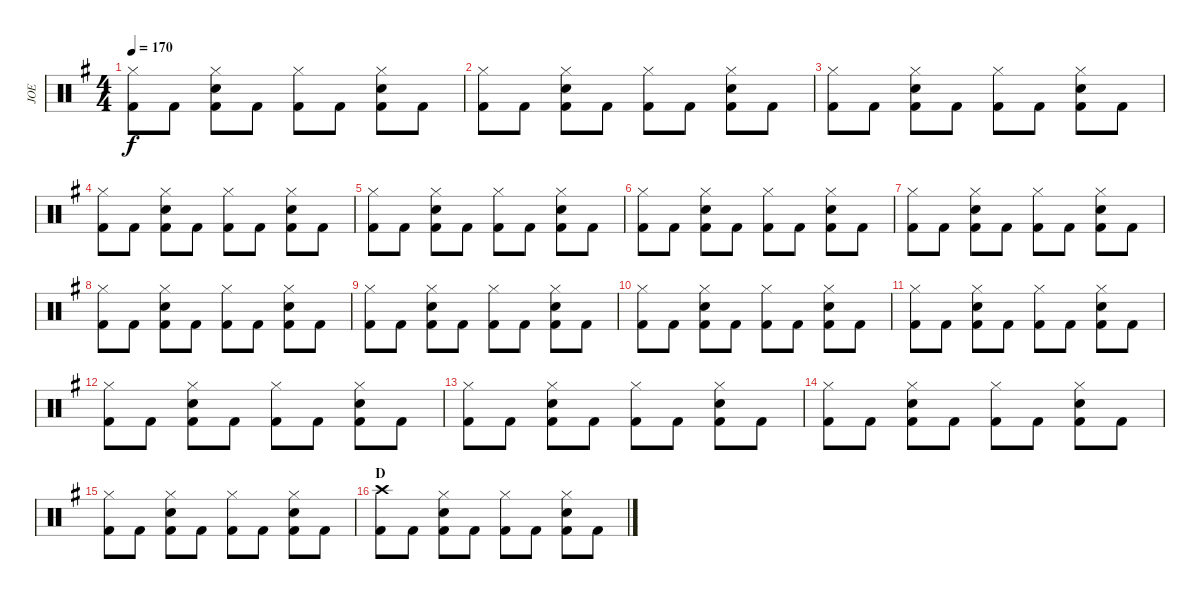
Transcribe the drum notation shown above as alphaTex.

\track ("JOE" "JOE") {instrument percussion}
\staff {score}
\articulation defaults
\ts (4 4)
\tempo 170
\clef neutral
\ks eminor
("Hi-Hat (closed)" "Kick (hit) 2").8{dy f} "Kick (hit) 2".8 ("Hi-Hat (closed)" "Snare (hit) 2" "Kick (hit) 2").8 "Kick (hit) 2".8 ("Hi-Hat (closed)" "Kick (hit) 2").8 "Kick (hit) 2".8 ("Hi-Hat (closed)" "Snare (hit) 2" "Kick (hit) 2").8 "Kick (hit) 2".8 |
("Hi-Hat (closed)" "Kick (hit) 2").8 "Kick (hit) 2".8 ("Hi-Hat (closed)" "Snare (hit) 2" "Kick (hit) 2").8 "Kick (hit) 2".8 ("Hi-Hat (closed)" "Kick (hit) 2").8 "Kick (hit) 2".8 ("Hi-Hat (closed)" "Snare (hit) 2" "Kick (hit) 2").8 "Kick (hit) 2".8 |
("Hi-Hat (closed)" "Kick (hit) 2").8 "Kick (hit) 2".8 ("Hi-Hat (closed)" "Snare (hit) 2" "Kick (hit) 2").8 "Kick (hit) 2".8 ("Hi-Hat (closed)" "Kick (hit) 2").8 "Kick (hit) 2".8 ("Hi-Hat (closed)" "Snare (hit) 2" "Kick (hit) 2").8 "Kick (hit) 2".8 |
("Hi-Hat (closed)" "Kick (hit) 2").8 "Kick (hit) 2".8 ("Hi-Hat (closed)" "Snare (hit) 2" "Kick (hit) 2").8 "Kick (hit) 2".8 ("Hi-Hat (closed)" "Kick (hit) 2").8 "Kick (hit) 2".8 ("Hi-Hat (closed)" "Snare (hit) 2" "Kick (hit) 2").8 "Kick (hit) 2".8 |
("Hi-Hat (closed)" "Kick (hit) 2").8 "Kick (hit) 2".8 ("Hi-Hat (closed)" "Snare (hit) 2" "Kick (hit) 2").8 "Kick (hit) 2".8 ("Hi-Hat (closed)" "Kick (hit) 2").8 "Kick (hit) 2".8 ("Hi-Hat (closed)" "Snare (hit) 2" "Kick (hit) 2").8 "Kick (hit) 2".8 |
("Hi-Hat (closed)" "Kick (hit) 2").8 "Kick (hit) 2".8 ("Hi-Hat (closed)" "Snare (hit) 2" "Kick (hit) 2").8 "Kick (hit) 2".8 ("Hi-Hat (closed)" "Kick (hit) 2").8 "Kick (hit) 2".8 ("Hi-Hat (closed)" "Snare (hit) 2" "Kick (hit) 2").8 "Kick (hit) 2".8 |
("Hi-Hat (closed)" "Kick (hit) 2").8 "Kick (hit) 2".8 ("Hi-Hat (closed)" "Snare (hit) 2" "Kick (hit) 2").8 "Kick (hit) 2".8 ("Hi-Hat (closed)" "Kick (hit) 2").8 "Kick (hit) 2".8 ("Hi-Hat (closed)" "Snare (hit) 2" "Kick (hit) 2").8 "Kick (hit) 2".8 |
("Hi-Hat (closed)" "Kick (hit) 2").8 "Kick (hit) 2".8 ("Hi-Hat (closed)" "Snare (hit) 2" "Kick (hit) 2").8 "Kick (hit) 2".8 ("Hi-Hat (closed)" "Kick (hit) 2").8 "Kick (hit) 2".8 ("Hi-Hat (closed)" "Snare (hit) 2" "Kick (hit) 2").8 "Kick (hit) 2".8 |
("Hi-Hat (closed)" "Kick (hit) 2").8 "Kick (hit) 2".8 ("Hi-Hat (closed)" "Snare (hit) 2" "Kick (hit) 2").8 "Kick (hit) 2".8 ("Hi-Hat (closed)" "Kick (hit) 2").8 "Kick (hit) 2".8 ("Hi-Hat (closed)" "Snare (hit) 2" "Kick (hit) 2").8 "Kick (hit) 2".8 |
("Hi-Hat (closed)" "Kick (hit) 2").8 "Kick (hit) 2".8 ("Hi-Hat (closed)" "Snare (hit) 2" "Kick (hit) 2").8 "Kick (hit) 2".8 ("Hi-Hat (closed)" "Kick (hit) 2").8 "Kick (hit) 2".8 ("Hi-Hat (closed)" "Snare (hit) 2" "Kick (hit) 2").8 "Kick (hit) 2".8 |
("Hi-Hat (closed)" "Kick (hit) 2").8 "Kick (hit) 2".8 ("Hi-Hat (closed)" "Snare (hit) 2" "Kick (hit) 2").8 "Kick (hit) 2".8 ("Hi-Hat (closed)" "Kick (hit) 2").8 "Kick (hit) 2".8 ("Hi-Hat (closed)" "Snare (hit) 2" "Kick (hit) 2").8 "Kick (hit) 2".8 |
("Hi-Hat (closed)" "Kick (hit) 2").8 "Kick (hit) 2".8 ("Hi-Hat (closed)" "Snare (hit) 2" "Kick (hit) 2").8 "Kick (hit) 2".8 ("Hi-Hat (closed)" "Kick (hit) 2").8 "Kick (hit) 2".8 ("Hi-Hat (closed)" "Snare (hit) 2" "Kick (hit) 2").8 "Kick (hit) 2".8 |
("Hi-Hat (closed)" "Kick (hit) 2").8 "Kick (hit) 2".8 ("Hi-Hat (closed)" "Snare (hit) 2" "Kick (hit) 2").8 "Kick (hit) 2".8 ("Hi-Hat (closed)" "Kick (hit) 2").8 "Kick (hit) 2".8 ("Hi-Hat (closed)" "Snare (hit) 2" "Kick (hit) 2").8 "Kick (hit) 2".8 |
("Hi-Hat (closed)" "Kick (hit) 2").8 "Kick (hit) 2".8 ("Hi-Hat (closed)" "Snare (hit) 2" "Kick (hit) 2").8 "Kick (hit) 2".8 ("Hi-Hat (closed)" "Kick (hit) 2").8 "Kick (hit) 2".8 ("Hi-Hat (closed)" "Snare (hit) 2" "Kick (hit) 2").8 "Kick (hit) 2".8 |
("Hi-Hat (closed)" "Kick (hit) 2").8 "Kick (hit) 2".8 ("Hi-Hat (closed)" "Snare (hit) 2" "Kick (hit) 2").8 "Kick (hit) 2".8 ("Hi-Hat (closed)" "Kick (hit) 2").8 "Kick (hit) 2".8 ("Hi-Hat (closed)" "Snare (hit) 2" "Kick (hit) 2").8 "Kick (hit) 2".8 |
\section ("" "D")
("Crash high (hit)" "Kick (hit) 2").8 "Kick (hit) 2".8 ("Hi-Hat (closed)" "Snare (hit) 2" "Kick (hit) 2").8 "Kick (hit) 2".8 ("Hi-Hat (closed)" "Kick (hit) 2").8 "Kick (hit) 2".8 ("Hi-Hat (closed)" "Snare (hit) 2" "Kick (hit) 2").8 "Kick (hit) 2".8
